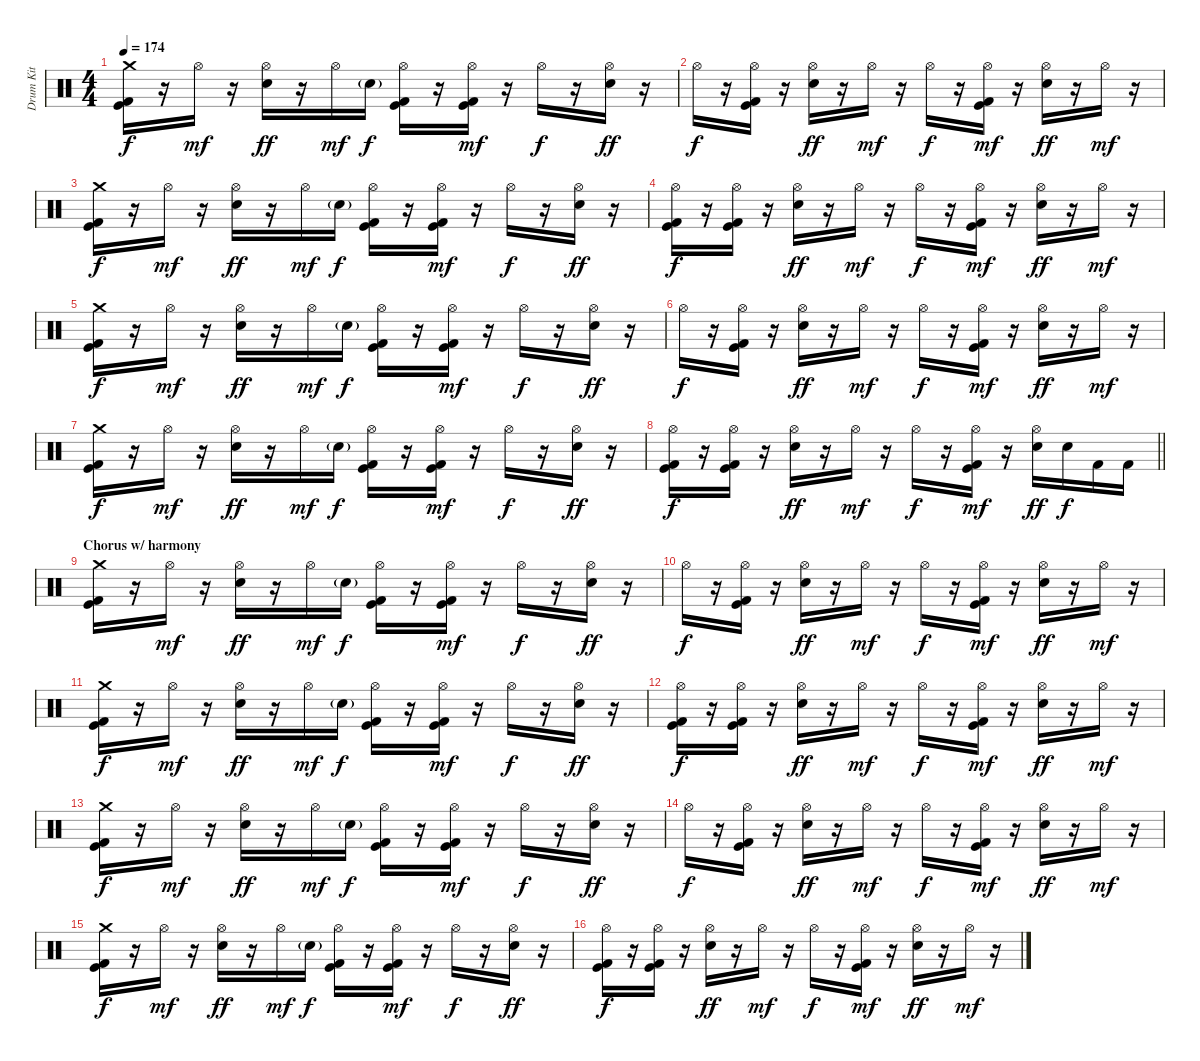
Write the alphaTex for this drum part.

\track ("Drum Kit" "Drum Kit") {instrument percussion}
\staff {score}
\articulation defaults
\ts (4 4)
\tempo 174
\clef neutral
\ks c
("Crash medium (hit)" "Kick (hit)" "Kick (hit) 2").16{dy f} r.16 "Hi-Hat (open)".16{dy mf} r.16 ("Hi-Hat (open)" "Electric Snare (hit)").16{dy ff} r.16 "Hi-Hat (open)".16{dy mf} "Electric Snare (hit)"{g}.16{dy f} ("Hi-Hat (open)" "Kick (hit)" "Kick (hit) 2").16 r.16 ("Hi-Hat (open)" "Kick (hit)" "Kick (hit) 2").16{dy mf} r.16 "Hi-Hat (open)".16{dy f} r.16 ("Hi-Hat (open)" "Electric Snare (hit)").16{dy ff} r.16 |
"Hi-Hat (open)".16{dy f} r.16 ("Hi-Hat (open)" "Kick (hit)" "Kick (hit) 2").16 r.16 ("Hi-Hat (open)" "Electric Snare (hit)").16{dy ff} r.16 "Hi-Hat (open)".16{dy mf} r.16 "Hi-Hat (open)".16{dy f} r.16 ("Hi-Hat (open)" "Kick (hit)" "Kick (hit) 2").16{dy mf} r.16 ("Hi-Hat (open)" "Electric Snare (hit)").16{dy ff} r.16 "Hi-Hat (open)".16{dy mf} r.16 |
("Crash medium (hit)" "Kick (hit)" "Kick (hit) 2").16{dy f} r.16 "Hi-Hat (open)".16{dy mf} r.16 ("Hi-Hat (open)" "Electric Snare (hit)").16{dy ff} r.16 "Hi-Hat (open)".16{dy mf} "Electric Snare (hit)"{g}.16{dy f} ("Hi-Hat (open)" "Kick (hit)" "Kick (hit) 2").16 r.16 ("Hi-Hat (open)" "Kick (hit)" "Kick (hit) 2").16{dy mf} r.16 "Hi-Hat (open)".16{dy f} r.16 ("Hi-Hat (open)" "Electric Snare (hit)").16{dy ff} r.16 |
("Hi-Hat (open)" "Kick (hit)" "Kick (hit) 2").16{dy f} r.16 ("Hi-Hat (open)" "Kick (hit)" "Kick (hit) 2").16 r.16 ("Hi-Hat (open)" "Electric Snare (hit)").16{dy ff} r.16 "Hi-Hat (open)".16{dy mf} r.16 "Hi-Hat (open)".16{dy f} r.16 ("Hi-Hat (open)" "Kick (hit)" "Kick (hit) 2").16{dy mf} r.16 ("Hi-Hat (open)" "Electric Snare (hit)").16{dy ff} r.16 "Hi-Hat (open)".16{dy mf} r.16 |
("Crash medium (hit)" "Kick (hit)" "Kick (hit) 2").16{dy f} r.16 "Hi-Hat (open)".16{dy mf} r.16 ("Hi-Hat (open)" "Electric Snare (hit)").16{dy ff} r.16 "Hi-Hat (open)".16{dy mf} "Electric Snare (hit)"{g}.16{dy f} ("Hi-Hat (open)" "Kick (hit)" "Kick (hit) 2").16 r.16 ("Hi-Hat (open)" "Kick (hit)" "Kick (hit) 2").16{dy mf} r.16 "Hi-Hat (open)".16{dy f} r.16 ("Hi-Hat (open)" "Electric Snare (hit)").16{dy ff} r.16 |
"Hi-Hat (open)".16{dy f} r.16 ("Hi-Hat (open)" "Kick (hit)" "Kick (hit) 2").16 r.16 ("Hi-Hat (open)" "Electric Snare (hit)").16{dy ff} r.16 "Hi-Hat (open)".16{dy mf} r.16 "Hi-Hat (open)".16{dy f} r.16 ("Hi-Hat (open)" "Kick (hit)" "Kick (hit) 2").16{dy mf} r.16 ("Hi-Hat (open)" "Electric Snare (hit)").16{dy ff} r.16 "Hi-Hat (open)".16{dy mf} r.16 |
("Crash medium (hit)" "Kick (hit)" "Kick (hit) 2").16{dy f} r.16 "Hi-Hat (open)".16{dy mf} r.16 ("Hi-Hat (open)" "Electric Snare (hit)").16{dy ff} r.16 "Hi-Hat (open)".16{dy mf} "Electric Snare (hit)"{g}.16{dy f} ("Hi-Hat (open)" "Kick (hit)" "Kick (hit) 2").16 r.16 ("Hi-Hat (open)" "Kick (hit)" "Kick (hit) 2").16{dy mf} r.16 "Hi-Hat (open)".16{dy f} r.16 ("Hi-Hat (open)" "Electric Snare (hit)").16{dy ff} r.16 |
\barLineRight lightlight
("Hi-Hat (open)" "Kick (hit)" "Kick (hit) 2").16{dy f} r.16 ("Hi-Hat (open)" "Kick (hit)" "Kick (hit) 2").16 r.16 ("Hi-Hat (open)" "Electric Snare (hit)").16{dy ff} r.16 "Hi-Hat (open)".16{dy mf} r.16 "Hi-Hat (open)".16{dy f} r.16 ("Hi-Hat (open)" "Kick (hit)" "Kick (hit) 2").16{dy mf} r.16 ("Hi-Hat (open)" "Electric Snare (hit)").16{dy ff} "Electric Snare (hit)".16{dy f} "Kick (hit) 2".16 "Kick (hit) 2".16 |
\section ("" "Chorus w/ harmony")
("Crash medium (hit)" "Kick (hit)" "Kick (hit) 2").16 r.16 "Hi-Hat (open)".16{dy mf} r.16 ("Hi-Hat (open)" "Electric Snare (hit)").16{dy ff} r.16 "Hi-Hat (open)".16{dy mf} "Electric Snare (hit)"{g}.16{dy f} ("Hi-Hat (open)" "Kick (hit)" "Kick (hit) 2").16 r.16 ("Hi-Hat (open)" "Kick (hit)" "Kick (hit) 2").16{dy mf} r.16 "Hi-Hat (open)".16{dy f} r.16 ("Hi-Hat (open)" "Electric Snare (hit)").16{dy ff} r.16 |
"Hi-Hat (open)".16{dy f} r.16 ("Hi-Hat (open)" "Kick (hit)" "Kick (hit) 2").16 r.16 ("Hi-Hat (open)" "Electric Snare (hit)").16{dy ff} r.16 "Hi-Hat (open)".16{dy mf} r.16 "Hi-Hat (open)".16{dy f} r.16 ("Hi-Hat (open)" "Kick (hit)" "Kick (hit) 2").16{dy mf} r.16 ("Hi-Hat (open)" "Electric Snare (hit)").16{dy ff} r.16 "Hi-Hat (open)".16{dy mf} r.16 |
("Crash medium (hit)" "Kick (hit)" "Kick (hit) 2").16{dy f} r.16 "Hi-Hat (open)".16{dy mf} r.16 ("Hi-Hat (open)" "Electric Snare (hit)").16{dy ff} r.16 "Hi-Hat (open)".16{dy mf} "Electric Snare (hit)"{g}.16{dy f} ("Hi-Hat (open)" "Kick (hit)" "Kick (hit) 2").16 r.16 ("Hi-Hat (open)" "Kick (hit)" "Kick (hit) 2").16{dy mf} r.16 "Hi-Hat (open)".16{dy f} r.16 ("Hi-Hat (open)" "Electric Snare (hit)").16{dy ff} r.16 |
("Hi-Hat (open)" "Kick (hit)" "Kick (hit) 2").16{dy f} r.16 ("Hi-Hat (open)" "Kick (hit)" "Kick (hit) 2").16 r.16 ("Hi-Hat (open)" "Electric Snare (hit)").16{dy ff} r.16 "Hi-Hat (open)".16{dy mf} r.16 "Hi-Hat (open)".16{dy f} r.16 ("Hi-Hat (open)" "Kick (hit)" "Kick (hit) 2").16{dy mf} r.16 ("Hi-Hat (open)" "Electric Snare (hit)").16{dy ff} r.16 "Hi-Hat (open)".16{dy mf} r.16 |
("Crash medium (hit)" "Kick (hit)" "Kick (hit) 2").16{dy f} r.16 "Hi-Hat (open)".16{dy mf} r.16 ("Hi-Hat (open)" "Electric Snare (hit)").16{dy ff} r.16 "Hi-Hat (open)".16{dy mf} "Electric Snare (hit)"{g}.16{dy f} ("Hi-Hat (open)" "Kick (hit)" "Kick (hit) 2").16 r.16 ("Hi-Hat (open)" "Kick (hit)" "Kick (hit) 2").16{dy mf} r.16 "Hi-Hat (open)".16{dy f} r.16 ("Hi-Hat (open)" "Electric Snare (hit)").16{dy ff} r.16 |
"Hi-Hat (open)".16{dy f} r.16 ("Hi-Hat (open)" "Kick (hit)" "Kick (hit) 2").16 r.16 ("Hi-Hat (open)" "Electric Snare (hit)").16{dy ff} r.16 "Hi-Hat (open)".16{dy mf} r.16 "Hi-Hat (open)".16{dy f} r.16 ("Hi-Hat (open)" "Kick (hit)" "Kick (hit) 2").16{dy mf} r.16 ("Hi-Hat (open)" "Electric Snare (hit)").16{dy ff} r.16 "Hi-Hat (open)".16{dy mf} r.16 |
("Crash medium (hit)" "Kick (hit)" "Kick (hit) 2").16{dy f} r.16 "Hi-Hat (open)".16{dy mf} r.16 ("Hi-Hat (open)" "Electric Snare (hit)").16{dy ff} r.16 "Hi-Hat (open)".16{dy mf} "Electric Snare (hit)"{g}.16{dy f} ("Hi-Hat (open)" "Kick (hit)" "Kick (hit) 2").16 r.16 ("Hi-Hat (open)" "Kick (hit)" "Kick (hit) 2").16{dy mf} r.16 "Hi-Hat (open)".16{dy f} r.16 ("Hi-Hat (open)" "Electric Snare (hit)").16{dy ff} r.16 |
("Hi-Hat (open)" "Kick (hit)" "Kick (hit) 2").16{dy f} r.16 ("Hi-Hat (open)" "Kick (hit)" "Kick (hit) 2").16 r.16 ("Hi-Hat (open)" "Electric Snare (hit)").16{dy ff} r.16 "Hi-Hat (open)".16{dy mf} r.16 "Hi-Hat (open)".16{dy f} r.16 ("Hi-Hat (open)" "Kick (hit)" "Kick (hit) 2").16{dy mf} r.16 ("Hi-Hat (open)" "Electric Snare (hit)").16{dy ff} r.16 "Hi-Hat (open)".16{dy mf} r.16
